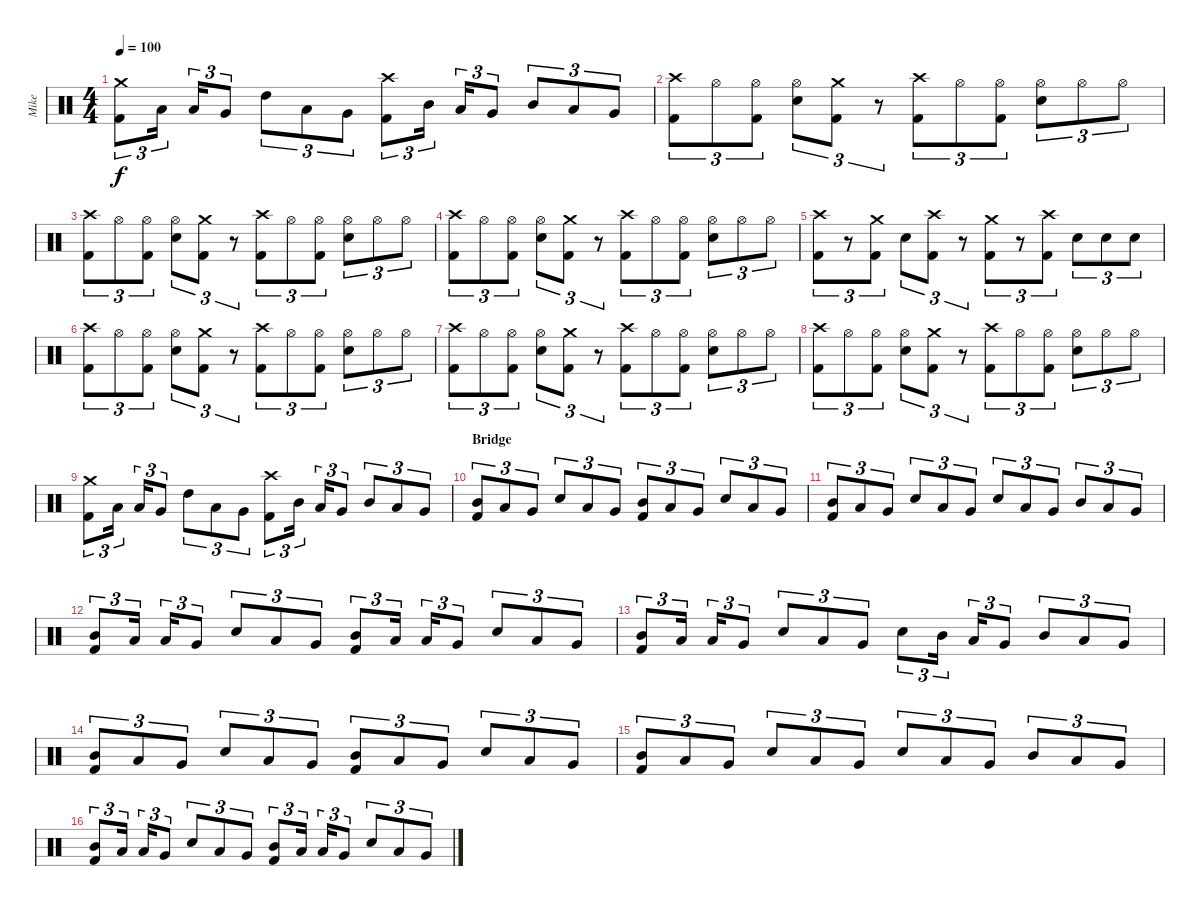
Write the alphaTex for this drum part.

\track ("Mike" "Mike") {instrument percussion}
\staff {score}
\articulation defaults
\ts (4 4)
\tempo 100
\clef neutral
\ks c
("Crash medium (hit)" "Kick (hit) 2").8{tu (3 2) dy f} "Low Tom (hit)".16{tu (3 2)} "Low Tom (hit)".16{tu (3 2)} "Very Low Tom (hit)".8{tu (3 2)} "High Tom (hit)".8{tu (3 2)} "Low Tom (hit)".8{tu (3 2)} "Very Low Tom (hit)".8{tu (3 2)} ("Crash high (hit)" "Kick (hit) 2").8{tu (3 2)} "Mid Tom (hit)".16{tu (3 2)} "Low Tom (hit)".16{tu (3 2)} "Very Low Tom (hit)".8{tu (3 2)} "Mid Tom (hit)".8{tu (3 2)} "Low Tom (hit)".8{tu (3 2)} "Very Low Tom (hit)".8{tu (3 2)} |
("Crash high (hit)" "Kick (hit) 2").8{tu (3 2)} "Hi-Hat (open)".8{tu (3 2)} ("Hi-Hat (open)" "Kick (hit) 2").8{tu (3 2)} ("Hi-Hat (open)" "Electric Snare (hit)").8{tu (3 2)} ("Crash medium (hit)" "Kick (hit) 2").8{tu (3 2)} r.8{tu (3 2)} ("Crash high (hit)" "Kick (hit) 2").8{tu (3 2)} "Hi-Hat (open)".8{tu (3 2)} ("Hi-Hat (open)" "Kick (hit) 2").8{tu (3 2)} ("Hi-Hat (open)" "Electric Snare (hit)").8{tu (3 2)} "Hi-Hat (open)".8{tu (3 2)} "Hi-Hat (open)".8{tu (3 2)} |
("Crash high (hit)" "Kick (hit) 2").8{tu (3 2)} "Hi-Hat (open)".8{tu (3 2)} ("Hi-Hat (open)" "Kick (hit) 2").8{tu (3 2)} ("Hi-Hat (open)" "Electric Snare (hit)").8{tu (3 2)} ("Crash medium (hit)" "Kick (hit) 2").8{tu (3 2)} r.8{tu (3 2)} ("Crash high (hit)" "Kick (hit) 2").8{tu (3 2)} "Hi-Hat (open)".8{tu (3 2)} ("Hi-Hat (open)" "Kick (hit) 2").8{tu (3 2)} ("Hi-Hat (open)" "Electric Snare (hit)").8{tu (3 2)} "Hi-Hat (open)".8{tu (3 2)} "Hi-Hat (open)".8{tu (3 2)} |
("Crash high (hit)" "Kick (hit) 2").8{tu (3 2)} "Hi-Hat (open)".8{tu (3 2)} ("Hi-Hat (open)" "Kick (hit) 2").8{tu (3 2)} ("Hi-Hat (open)" "Electric Snare (hit)").8{tu (3 2)} ("Crash medium (hit)" "Kick (hit) 2").8{tu (3 2)} r.8{tu (3 2)} ("Crash high (hit)" "Kick (hit) 2").8{tu (3 2)} "Hi-Hat (open)".8{tu (3 2)} ("Hi-Hat (open)" "Kick (hit) 2").8{tu (3 2)} ("Hi-Hat (open)" "Electric Snare (hit)").8{tu (3 2)} "Hi-Hat (open)".8{tu (3 2)} "Hi-Hat (open)".8{tu (3 2)} |
("Crash high (hit)" "Kick (hit) 2").8{tu (3 2)} r.8{tu (3 2)} ("Crash medium (hit)" "Kick (hit) 2").8{tu (3 2)} "Electric Snare (hit)".8{tu (3 2)} ("Crash high (hit)" "Kick (hit) 2").8{tu (3 2)} r.8{tu (3 2)} ("Crash medium (hit)" "Kick (hit) 2").8{tu (3 2)} r.8{tu (3 2)} ("Crash high (hit)" "Kick (hit) 2").8{tu (3 2)} "Electric Snare (hit)".8{tu (3 2)} "Electric Snare (hit)".8{tu (3 2)} "Electric Snare (hit)".8{tu (3 2)} |
("Crash high (hit)" "Kick (hit) 2").8{tu (3 2)} "Hi-Hat (open)".8{tu (3 2)} ("Hi-Hat (open)" "Kick (hit) 2").8{tu (3 2)} ("Hi-Hat (open)" "Electric Snare (hit)").8{tu (3 2)} ("Crash medium (hit)" "Kick (hit) 2").8{tu (3 2)} r.8{tu (3 2)} ("Crash high (hit)" "Kick (hit) 2").8{tu (3 2)} "Hi-Hat (open)".8{tu (3 2)} ("Hi-Hat (open)" "Kick (hit) 2").8{tu (3 2)} ("Hi-Hat (open)" "Electric Snare (hit)").8{tu (3 2)} "Hi-Hat (open)".8{tu (3 2)} "Hi-Hat (open)".8{tu (3 2)} |
("Crash high (hit)" "Kick (hit) 2").8{tu (3 2)} "Hi-Hat (open)".8{tu (3 2)} ("Hi-Hat (open)" "Kick (hit) 2").8{tu (3 2)} ("Hi-Hat (open)" "Electric Snare (hit)").8{tu (3 2)} ("Crash medium (hit)" "Kick (hit) 2").8{tu (3 2)} r.8{tu (3 2)} ("Crash high (hit)" "Kick (hit) 2").8{tu (3 2)} "Hi-Hat (open)".8{tu (3 2)} ("Hi-Hat (open)" "Kick (hit) 2").8{tu (3 2)} ("Hi-Hat (open)" "Electric Snare (hit)").8{tu (3 2)} "Hi-Hat (open)".8{tu (3 2)} "Hi-Hat (open)".8{tu (3 2)} |
("Crash high (hit)" "Kick (hit) 2").8{tu (3 2)} "Hi-Hat (open)".8{tu (3 2)} ("Hi-Hat (open)" "Kick (hit) 2").8{tu (3 2)} ("Hi-Hat (open)" "Electric Snare (hit)").8{tu (3 2)} ("Crash medium (hit)" "Kick (hit) 2").8{tu (3 2)} r.8{tu (3 2)} ("Crash high (hit)" "Kick (hit) 2").8{tu (3 2)} "Hi-Hat (open)".8{tu (3 2)} ("Hi-Hat (open)" "Kick (hit) 2").8{tu (3 2)} ("Hi-Hat (open)" "Electric Snare (hit)").8{tu (3 2)} "Hi-Hat (open)".8{tu (3 2)} "Hi-Hat (open)".8{tu (3 2)} |
("Crash medium (hit)" "Kick (hit) 2").8{tu (3 2)} "Low Tom (hit)".16{tu (3 2)} "Low Tom (hit)".16{tu (3 2)} "Very Low Tom (hit)".8{tu (3 2)} "High Tom (hit)".8{tu (3 2)} "Low Tom (hit)".8{tu (3 2)} "Very Low Tom (hit)".8{tu (3 2)} ("Crash high (hit)" "Kick (hit) 2").8{tu (3 2)} "Mid Tom (hit)".16{tu (3 2)} "Low Tom (hit)".16{tu (3 2)} "Very Low Tom (hit)".8{tu (3 2)} "Mid Tom (hit)".8{tu (3 2)} "Low Tom (hit)".8{tu (3 2)} "Very Low Tom (hit)".8{tu (3 2)} |
\section ("" "Bridge")
("Mid Tom (hit)" "Kick (hit) 2").8{tu (3 2)} "Low Tom (hit)".8{tu (3 2)} "Very Low Tom (hit)".8{tu (3 2)} "Electric Snare (hit)".8{tu (3 2)} "Low Tom (hit)".8{tu (3 2)} "Very Low Tom (hit)".8{tu (3 2)} ("Mid Tom (hit)" "Kick (hit) 2").8{tu (3 2)} "Low Tom (hit)".8{tu (3 2)} "Very Low Tom (hit)".8{tu (3 2)} "Electric Snare (hit)".8{tu (3 2)} "Low Tom (hit)".8{tu (3 2)} "Very Low Tom (hit)".8{tu (3 2)} |
("Mid Tom (hit)" "Kick (hit) 2").8{tu (3 2)} "Low Tom (hit)".8{tu (3 2)} "Very Low Tom (hit)".8{tu (3 2)} "Electric Snare (hit)".8{tu (3 2)} "Low Tom (hit)".8{tu (3 2)} "Very Low Tom (hit)".8{tu (3 2)} "Electric Snare (hit)".8{tu (3 2)} "Low Tom (hit)".8{tu (3 2)} "Very Low Tom (hit)".8{tu (3 2)} "Mid Tom (hit)".8{tu (3 2)} "Low Tom (hit)".8{tu (3 2)} "Very Low Tom (hit)".8{tu (3 2)} |
("Mid Tom (hit)" "Kick (hit) 2").8{tu (3 2)} "Low Tom (hit)".16{tu (3 2)} "Low Tom (hit)".16{tu (3 2)} "Very Low Tom (hit)".8{tu (3 2)} "Electric Snare (hit)".8{tu (3 2)} "Low Tom (hit)".8{tu (3 2)} "Very Low Tom (hit)".8{tu (3 2)} ("Mid Tom (hit)" "Kick (hit) 2").8{tu (3 2)} "Low Tom (hit)".16{tu (3 2)} "Low Tom (hit)".16{tu (3 2)} "Very Low Tom (hit)".8{tu (3 2)} "Electric Snare (hit)".8{tu (3 2)} "Low Tom (hit)".8{tu (3 2)} "Very Low Tom (hit)".8{tu (3 2)} |
("Mid Tom (hit)" "Kick (hit) 2").8{tu (3 2)} "Low Tom (hit)".16{tu (3 2)} "Low Tom (hit)".16{tu (3 2)} "Very Low Tom (hit)".8{tu (3 2)} "Electric Snare (hit)".8{tu (3 2)} "Low Tom (hit)".8{tu (3 2)} "Very Low Tom (hit)".8{tu (3 2)} "Electric Snare (hit)".8{tu (3 2)} "Mid Tom (hit)".16{tu (3 2)} "Low Tom (hit)".16{tu (3 2)} "Very Low Tom (hit)".8{tu (3 2)} "Mid Tom (hit)".8{tu (3 2)} "Low Tom (hit)".8{tu (3 2)} "Very Low Tom (hit)".8{tu (3 2)} |
("Mid Tom (hit)" "Kick (hit) 2").8{tu (3 2)} "Low Tom (hit)".8{tu (3 2)} "Very Low Tom (hit)".8{tu (3 2)} "Electric Snare (hit)".8{tu (3 2)} "Low Tom (hit)".8{tu (3 2)} "Very Low Tom (hit)".8{tu (3 2)} ("Mid Tom (hit)" "Kick (hit) 2").8{tu (3 2)} "Low Tom (hit)".8{tu (3 2)} "Very Low Tom (hit)".8{tu (3 2)} "Electric Snare (hit)".8{tu (3 2)} "Low Tom (hit)".8{tu (3 2)} "Very Low Tom (hit)".8{tu (3 2)} |
("Mid Tom (hit)" "Kick (hit) 2").8{tu (3 2)} "Low Tom (hit)".8{tu (3 2)} "Very Low Tom (hit)".8{tu (3 2)} "Electric Snare (hit)".8{tu (3 2)} "Low Tom (hit)".8{tu (3 2)} "Very Low Tom (hit)".8{tu (3 2)} "Electric Snare (hit)".8{tu (3 2)} "Low Tom (hit)".8{tu (3 2)} "Very Low Tom (hit)".8{tu (3 2)} "Mid Tom (hit)".8{tu (3 2)} "Low Tom (hit)".8{tu (3 2)} "Very Low Tom (hit)".8{tu (3 2)} |
("Mid Tom (hit)" "Kick (hit) 2").8{tu (3 2)} "Low Tom (hit)".16{tu (3 2)} "Low Tom (hit)".16{tu (3 2)} "Very Low Tom (hit)".8{tu (3 2)} "Electric Snare (hit)".8{tu (3 2)} "Low Tom (hit)".8{tu (3 2)} "Very Low Tom (hit)".8{tu (3 2)} ("Mid Tom (hit)" "Kick (hit) 2").8{tu (3 2)} "Low Tom (hit)".16{tu (3 2)} "Low Tom (hit)".16{tu (3 2)} "Very Low Tom (hit)".8{tu (3 2)} "Electric Snare (hit)".8{tu (3 2)} "Low Tom (hit)".8{tu (3 2)} "Very Low Tom (hit)".8{tu (3 2)}
